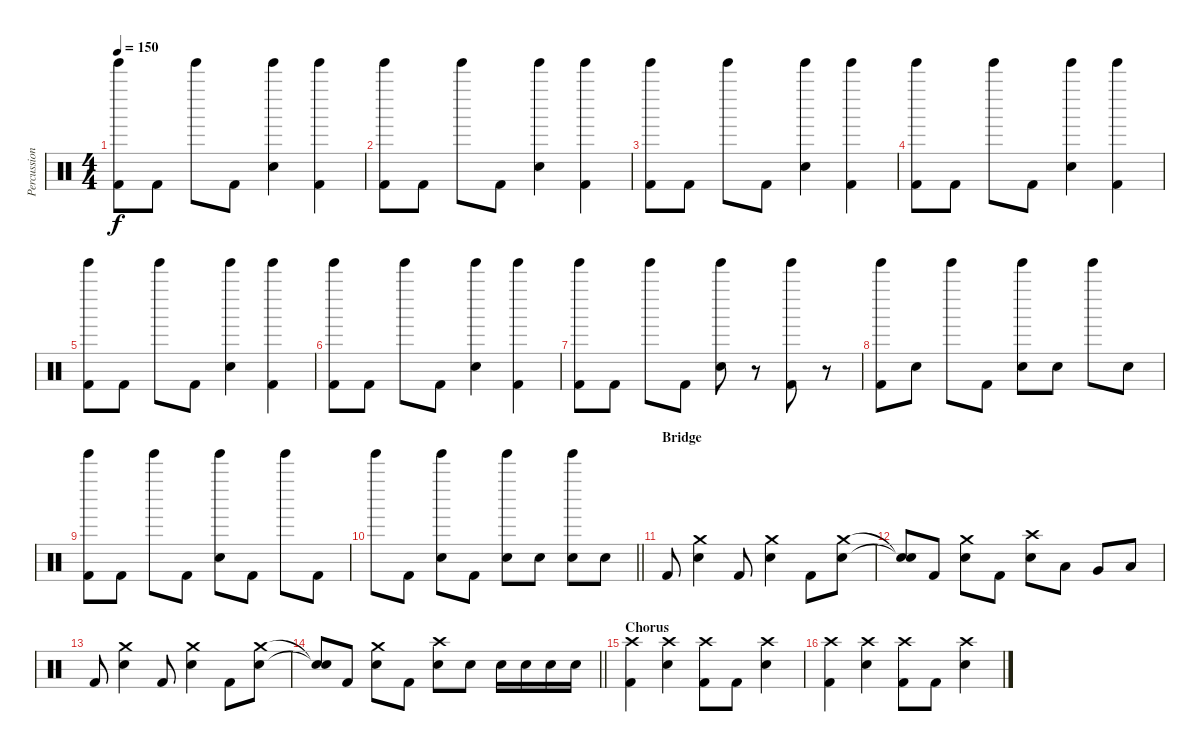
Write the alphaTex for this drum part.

\track ("Percussion" "Percussion") {instrument percussion}
\staff {score}
\articulation defaults
\ts (4 4)
\tempo 150
\clef neutral
\ks c
("Tinkle Bell (hit)" "Kick (hit) 2").8{dy f} "Kick (hit) 2".8 "Tinkle Bell (hit)".8 "Kick (hit) 2".8 ("Tinkle Bell (hit)" "Electric Snare (hit)").4 ("Tinkle Bell (hit)" "Kick (hit) 2").4 |
("Tinkle Bell (hit)" "Kick (hit) 2").8 "Kick (hit) 2".8 "Tinkle Bell (hit)".8 "Kick (hit) 2".8 ("Tinkle Bell (hit)" "Electric Snare (hit)").4 ("Tinkle Bell (hit)" "Kick (hit) 2").4 |
("Tinkle Bell (hit)" "Kick (hit) 2").8 "Kick (hit) 2".8 "Tinkle Bell (hit)".8 "Kick (hit) 2".8 ("Tinkle Bell (hit)" "Electric Snare (hit)").4 ("Tinkle Bell (hit)" "Kick (hit) 2").4 |
("Tinkle Bell (hit)" "Kick (hit) 2").8 "Kick (hit) 2".8 "Tinkle Bell (hit)".8 "Kick (hit) 2".8 ("Tinkle Bell (hit)" "Electric Snare (hit)").4 ("Tinkle Bell (hit)" "Kick (hit) 2").4 |
("Tinkle Bell (hit)" "Kick (hit) 2").8 "Kick (hit) 2".8 "Tinkle Bell (hit)".8 "Kick (hit) 2".8 ("Tinkle Bell (hit)" "Electric Snare (hit)").4 ("Tinkle Bell (hit)" "Kick (hit) 2").4 |
("Tinkle Bell (hit)" "Kick (hit) 2").8 "Kick (hit) 2".8 "Tinkle Bell (hit)".8 "Kick (hit) 2".8 ("Tinkle Bell (hit)" "Electric Snare (hit)").4 ("Tinkle Bell (hit)" "Kick (hit) 2").4 |
("Tinkle Bell (hit)" "Kick (hit) 2").8 "Kick (hit) 2".8 "Tinkle Bell (hit)".8 "Kick (hit) 2".8 ("Tinkle Bell (hit)" "Electric Snare (hit)").8 r.8 ("Tinkle Bell (hit)" "Kick (hit) 2").8 r.8 |
("Tinkle Bell (hit)" "Kick (hit) 2").8 "Electric Snare (hit)".8 "Tinkle Bell (hit)".8 "Kick (hit) 2".8 ("Tinkle Bell (hit)" "Electric Snare (hit)").8 "Electric Snare (hit)".8 "Tinkle Bell (hit)".8 "Electric Snare (hit)".8 |
("Tinkle Bell (hit)" "Kick (hit) 2").8 "Kick (hit) 2".8 "Tinkle Bell (hit)".8 "Kick (hit) 2".8 ("Tinkle Bell (hit)" "Electric Snare (hit)").8 "Kick (hit) 2".8 "Tinkle Bell (hit)".8 "Kick (hit) 2".8 |
\barLineRight lightlight "Tinkle Bell (hit)".8 "Kick (hit) 2".8
("Tinkle Bell (hit)" "Electric Snare (hit)").8 "Kick (hit) 2".8 ("Tinkle Bell (hit)" "Electric Snare (hit)").8 "Electric Snare (hit)".8 ("Tinkle Bell (hit)" "Electric Snare (hit)").8 "Electric Snare (hit)".8 |
\section ("" "Bridge")
"Kick (hit) 2".8 ("Crash medium (hit)" "Electric Snare (hit)").4 "Kick (hit) 2".8 ("Crash medium (hit)" "Electric Snare (hit)").4 "Kick (hit) 2".8 ("Crash medium (hit)" "Electric Snare (hit)").8 |
("Snare (hit)"{t} "Snare (hit)"{t}).8 "Kick (hit) 2".8 ("Crash medium (hit)" "Electric Snare (hit)").8 "Kick (hit) 2".8 ("Crash high (hit)" "Electric Snare (hit)").8 "Low Tom (hit)".8 "Very Low Tom (hit)".8 "Low Floor Tom (hit)".8 |
"Kick (hit) 2".8 ("Crash medium (hit)" "Electric Snare (hit)").4 "Kick (hit) 2".8 ("Crash medium (hit)" "Electric Snare (hit)").4 "Kick (hit) 2".8 ("Crash medium (hit)" "Electric Snare (hit)").8 |
\barLineRight lightlight
("Snare (hit)"{t} "Snare (hit)"{t}).8 "Kick (hit) 2".8 ("Crash medium (hit)" "Electric Snare (hit)").8 "Kick (hit) 2".8 ("Crash high (hit)" "Electric Snare (hit)").8 "Electric Snare (hit)".8 "Electric Snare (hit)".16 "Electric Snare (hit)".16 "Electric Snare (hit)".16 "Electric Snare (hit)".16 |
\section ("" "Chorus")
("Crash high (hit)" "Kick (hit) 2").4 ("Crash high (hit)" "Electric Snare (hit)").4 ("Crash high (hit)" "Kick (hit) 2").8 "Kick (hit) 2".8 ("Crash high (hit)" "Electric Snare (hit)").4 |
("Crash high (hit)" "Kick (hit) 2").4 ("Crash high (hit)" "Electric Snare (hit)").4 ("Crash high (hit)" "Kick (hit) 2").8 "Kick (hit) 2".8 ("Crash high (hit)" "Electric Snare (hit)").4
